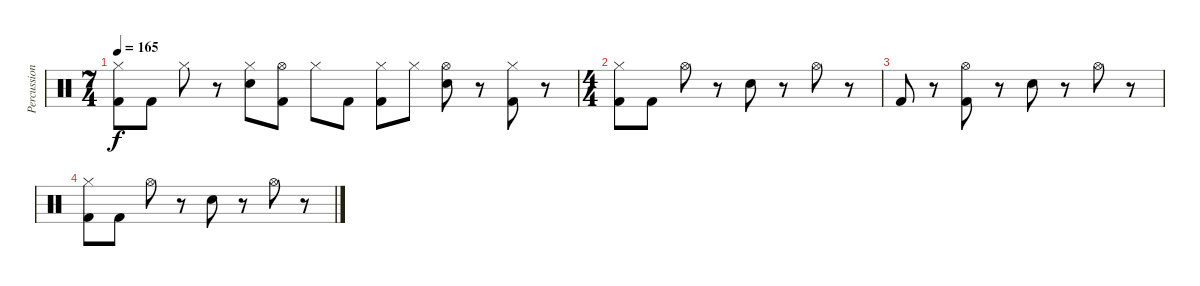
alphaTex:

\track ("Percussion" "Percussion") {instrument percussion}
\staff {score}
\articulation defaults
\ts (7 4)
\tempo 165
\clef neutral
\ks c
("Hi-Hat (closed)" "Kick (hit) 2").8{dy f} "Kick (hit) 2".8 "Hi-Hat (closed)".8 r.8 ("Hi-Hat (closed)" "Snare (hit) 2").8 ("Hi-Hat (open)" "Kick (hit) 2").8 "Hi-Hat (closed)".8 "Kick (hit) 2".8 ("Hi-Hat (closed)" "Kick (hit) 2").8 "Hi-Hat (closed)".8 ("Hi-Hat (open)" "Snare (hit) 2").8 r.8 ("Hi-Hat (closed)" "Kick (hit) 2").8 r.8 |
\ts (4 4)
("Hi-Hat (closed)" "Kick (hit) 2").8 "Kick (hit) 2".8 "Hi-Hat (open)".8 r.8 "Snare (hit) 2".8 r.8 "Hi-Hat (open)".8 r.8 |
"Kick (hit) 2".8 r.8 ("Hi-Hat (open)" "Kick (hit) 2").8 r.8 "Snare (hit) 2".8 r.8 "Hi-Hat (open)".8 r.8 |
("Hi-Hat (closed)" "Kick (hit) 2").8 "Kick (hit) 2".8 "Hi-Hat (open)".8 r.8 "Snare (hit) 2".8 r.8 "Hi-Hat (open)".8 r.8
